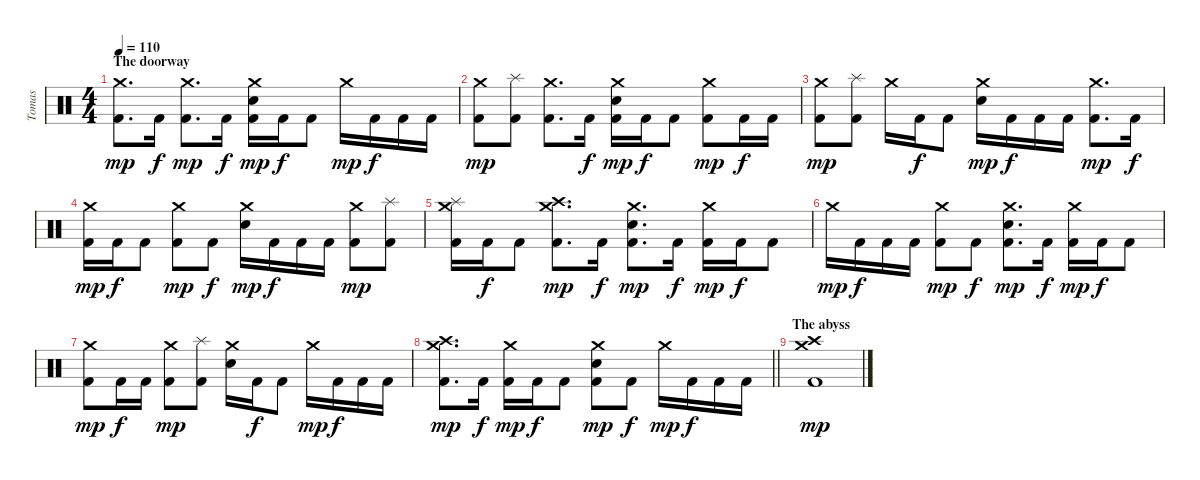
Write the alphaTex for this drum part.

\track ("Tomas" "Tomas") {instrument percussion}
\staff {score}
\articulation defaults
\ts (4 4)
\section ("" "The doorway")
\tempo 110
\clef neutral
\ks c
("Crash medium (hit)" "Kick (hit) 2").8{d dy mp} "Kick (hit) 2".16{dy f} ("Crash medium (hit)" "Kick (hit) 2").8{d dy mp} "Kick (hit) 2".16{dy f} ("Crash medium (hit)" "Electric Snare (hit)" "Kick (hit) 2").16{dy mp} "Kick (hit) 2".16{dy f} "Kick (hit) 2".8 "Crash medium (hit)".16{dy mp} "Kick (hit) 2".16{dy f} "Kick (hit) 2".16 "Kick (hit) 2".16 |
("Crash medium (hit)" "Kick (hit) 2").8{dy mp} ("Splash (hit)" "Kick (hit) 2").8 ("Crash medium (hit)" "Kick (hit) 2").8{d} "Kick (hit) 2".16{dy f} ("Crash medium (hit)" "Electric Snare (hit)" "Kick (hit) 2").16{dy mp} "Kick (hit) 2".16{dy f} "Kick (hit) 2".8 ("Crash medium (hit)" "Kick (hit) 2").8{dy mp} "Kick (hit) 2".16{dy f} "Kick (hit) 2".16 |
("Crash medium (hit)" "Kick (hit) 2").8{dy mp} ("Splash (hit)" "Kick (hit) 2").8 "Crash medium (hit)".16 "Kick (hit) 2".16{dy f} "Kick (hit) 2".8 ("Crash medium (hit)" "Electric Snare (hit)").16{dy mp} "Kick (hit) 2".16{dy f} "Kick (hit) 2".16 "Kick (hit) 2".16 ("Crash medium (hit)" "Kick (hit) 2").8{d dy mp} "Kick (hit) 2".16{dy f} |
("Crash medium (hit)" "Kick (hit) 2").16{dy mp} "Kick (hit) 2".16{dy f} "Kick (hit) 2".8 ("Crash medium (hit)" "Kick (hit) 2").8{dy mp} "Kick (hit) 2".8{dy f} ("Crash medium (hit)" "Electric Snare (hit)").16{dy mp} "Kick (hit) 2".16{dy f} "Kick (hit) 2".16 "Kick (hit) 2".16 ("Crash medium (hit)" "Kick (hit) 2").8{dy mp} ("Splash (hit)" "Kick (hit) 2").8 |
("Crash medium (hit)" "Splash (hit)" "Kick (hit) 2").16 "Kick (hit) 2".16{dy f} "Kick (hit) 2".8 ("Crash medium (hit)" "Crash high (hit)" "Kick (hit) 2").8{d dy mp} "Kick (hit) 2".16{dy f} ("Crash medium (hit)" "Electric Snare (hit)" "Kick (hit) 2").8{d dy mp} "Kick (hit) 2".16{dy f} ("Crash medium (hit)" "Kick (hit) 2").16{dy mp} "Kick (hit) 2".16{dy f} "Kick (hit) 2".8 |
"Crash medium (hit)".16{dy mp} "Kick (hit) 2".16{dy f} "Kick (hit) 2".16 "Kick (hit) 2".16 ("Crash medium (hit)" "Kick (hit) 2").8{dy mp} "Kick (hit) 2".8{dy f} ("Crash medium (hit)" "Electric Snare (hit)" "Kick (hit) 2").8{d dy mp} "Kick (hit) 2".16{dy f} ("Crash medium (hit)" "Kick (hit) 2").16{dy mp} "Kick (hit) 2".16{dy f} "Kick (hit) 2".8 |
("Crash medium (hit)" "Kick (hit) 2").8{dy mp} "Kick (hit) 2".16{dy f} "Kick (hit) 2".16 ("Crash medium (hit)" "Kick (hit) 2").8{dy mp} ("Splash (hit)" "Kick (hit) 2").8 ("Crash medium (hit)" "Electric Snare (hit)").16 "Kick (hit) 2".16{dy f} "Kick (hit) 2".8 "Crash medium (hit)".16{dy mp} "Kick (hit) 2".16{dy f} "Kick (hit) 2".16 "Kick (hit) 2".16 |
\barLineRight lightlight
("Crash medium (hit)" "Crash high (hit)" "Kick (hit) 2").8{d dy mp} "Kick (hit) 2".16{dy f} ("Crash medium (hit)" "Kick (hit) 2").16{dy mp} "Kick (hit) 2".16{dy f} "Kick (hit) 2".8 ("Crash medium (hit)" "Electric Snare (hit)" "Kick (hit) 2").8{dy mp} "Kick (hit) 2".8{dy f} "Crash medium (hit)".16{dy mp} "Kick (hit) 2".16{dy f} "Kick (hit) 2".16 "Kick (hit) 2".16 |
\section ("" "The abyss")
("Crash medium (hit)" "Crash high (hit)" "Kick (hit) 2").1{dy mp}
